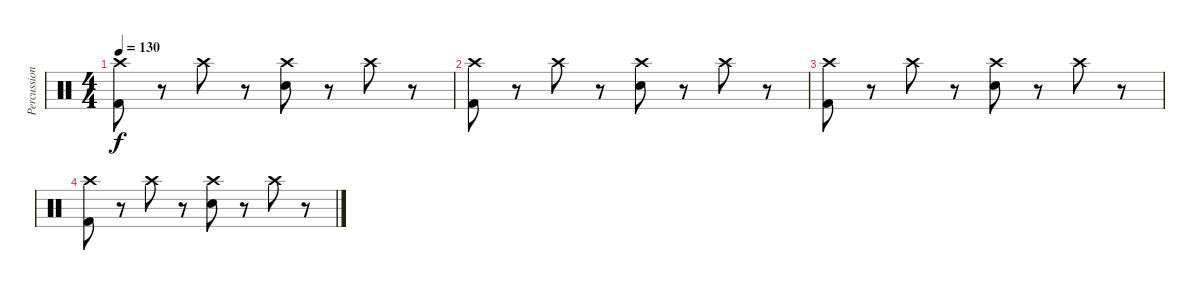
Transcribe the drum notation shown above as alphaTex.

\track ("Percussion" "Percussion") {instrument percussion}
\staff {score}
\articulation defaults
\ts (4 4)
\tempo 130
\clef neutral
\ks c
("Crash high (hit)" "Kick (hit) 2").8{dy f} r.8 "Crash high (hit)".8 r.8 ("Crash high (hit)" "Snare (hit) 2").8 r.8 "Crash high (hit)".8 r.8 |
("Crash high (hit)" "Kick (hit) 2").8 r.8 "Crash high (hit)".8 r.8 ("Crash high (hit)" "Snare (hit) 2").8 r.8 "Crash high (hit)".8 r.8 |
("Crash high (hit)" "Kick (hit) 2").8 r.8 "Crash high (hit)".8 r.8 ("Crash high (hit)" "Snare (hit) 2").8 r.8 "Crash high (hit)".8 r.8 |
("Crash high (hit)" "Kick (hit) 2").8 r.8 "Crash high (hit)".8 r.8 ("Crash high (hit)" "Snare (hit) 2").8 r.8 "Crash high (hit)".8 r.8
